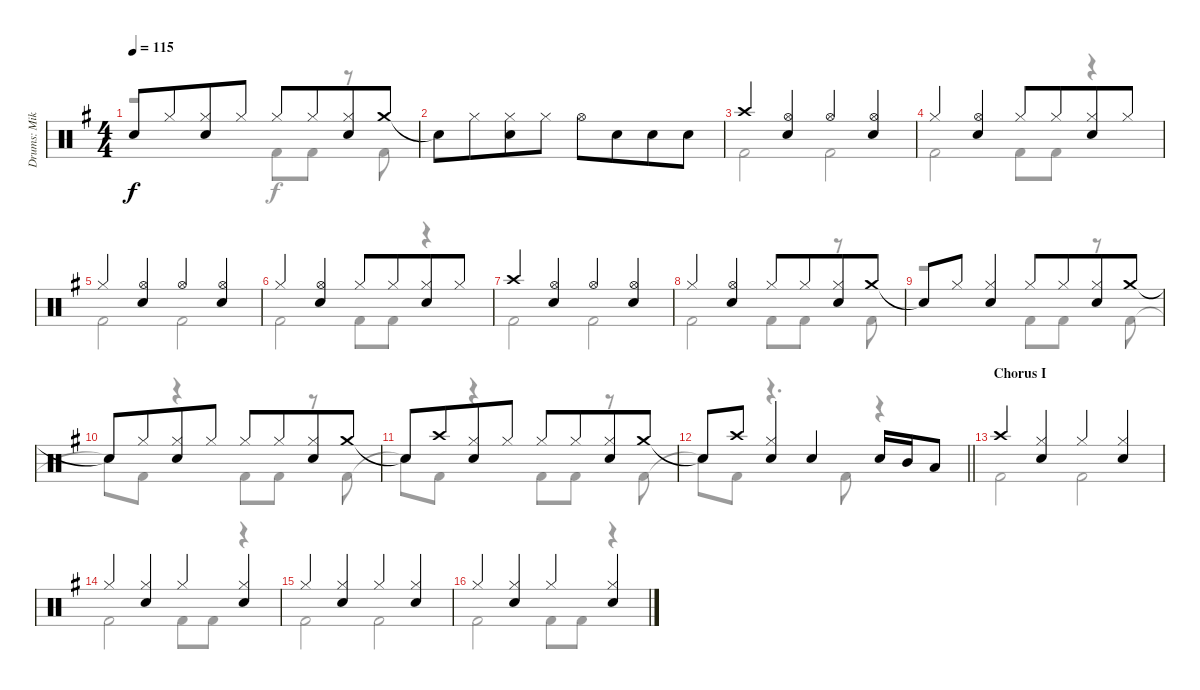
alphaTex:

\track ("Drums: Mikkey" "Drums: Mik") {instrument percussion}
\staff {score}
\articulation defaults
\voice
\ts (4 4)
\tempo 115
\clef neutral
\ks g "Snare (hit)"{t}.8{dy f} "Hi-Hat (closed)".8{beam merge}
("Hi-Hat (closed)" "Snare (hit) 2").8 "Hi-Hat (closed)".8 "Hi-Hat (closed)".8 "Hi-Hat (closed)".8{beam merge} ("Hi-Hat (closed)" "Snare (hit) 2").8 "Crash medium (hit)".8 |
"Snare (hit)"{t}.8 "Hi-Hat (closed)".8{beam merge} ("Hi-Hat (closed)" "Snare (hit) 2").8 "Hi-Hat (closed)".8 "Hi-Hat (open)".8 "Snare (hit) 2".8{beam merge} "Snare (hit) 2".8 "Snare (hit) 2".8 |
"Crash high (hit)".4 ("Hi-Hat (open)" "Snare (hit) 2").4 "Hi-Hat (open)".4 ("Hi-Hat (open)" "Snare (hit) 2").4 |
"Hi-Hat (closed)".4 ("Hi-Hat (open)" "Snare (hit) 2").4 "Hi-Hat (closed)".8 "Hi-Hat (closed)".8{beam merge} ("Hi-Hat (closed)" "Snare (hit) 2").8 "Hi-Hat (closed)".8 |
"Hi-Hat (closed)".4 ("Hi-Hat (open)" "Snare (hit) 2").4 "Hi-Hat (open)".4 ("Hi-Hat (open)" "Snare (hit) 2").4 |
"Hi-Hat (closed)".4 ("Hi-Hat (open)" "Snare (hit) 2").4 "Hi-Hat (closed)".8 "Hi-Hat (closed)".8{beam merge} ("Hi-Hat (closed)" "Snare (hit) 2").8 "Hi-Hat (closed)".8 |
"Crash high (hit)".4 ("Hi-Hat (open)" "Snare (hit) 2").4 "Hi-Hat (open)".4 ("Hi-Hat (open)" "Snare (hit) 2").4 |
"Hi-Hat (closed)".4 ("Hi-Hat (open)" "Snare (hit) 2").4 "Hi-Hat (closed)".8 "Hi-Hat (closed)".8{beam merge} ("Hi-Hat (closed)" "Snare (hit) 2").8 "Crash medium (hit)".8 |
"Snare (hit)"{t}.8 "Hi-Hat (closed)".8 ("Hi-Hat (closed)" "Snare (hit) 2").4 "Hi-Hat (closed)".8 "Hi-Hat (closed)".8{beam merge} ("Hi-Hat (closed)" "Snare (hit) 2").8 "Crash medium (hit)".8 |
"Snare (hit)"{t}.8 "Hi-Hat (closed)".8{beam merge} ("Hi-Hat (closed)" "Snare (hit) 2").8 "Hi-Hat (closed)".8 "Hi-Hat (closed)".8 "Hi-Hat (closed)".8{beam merge} ("Hi-Hat (closed)" "Snare (hit) 2").8 "Crash medium (hit)".8 |
"Snare (hit)"{t}.8 "Crash high (hit)".8{beam merge} ("Hi-Hat (closed)" "Snare (hit) 2").8 "Hi-Hat (closed)".8 "Hi-Hat (closed)".8 "Hi-Hat (closed)".8{beam merge} ("Hi-Hat (closed)" "Snare (hit) 2").8 "Crash medium (hit)".8 |
\barLineRight lightlight "Snare (hit)"{t}.8 "Crash high (hit)".8{beam merge}
("Hi-Hat (closed)" "Snare (hit) 2").4 "Snare (hit) 2".4 "Snare (hit) 2".16 "Mid Tom (hit)".16 "Low Tom (hit)".8 |
\section ("" "Chorus I")
"Crash high (hit)".4 ("Hi-Hat (closed)" "Snare (hit) 2").4 "Hi-Hat (closed)".4 ("Hi-Hat (closed)" "Snare (hit) 2").4 |
"Hi-Hat (closed)".4 ("Hi-Hat (closed)" "Snare (hit) 2").4 "Hi-Hat (closed)".4 ("Hi-Hat (closed)" "Snare (hit) 2").4 |
"Hi-Hat (closed)".4 ("Hi-Hat (closed)" "Snare (hit) 2").4 "Hi-Hat (closed)".4 ("Hi-Hat (closed)" "Snare (hit) 2").4 |
"Hi-Hat (closed)".4 ("Hi-Hat (closed)" "Snare (hit) 2").4 "Hi-Hat (closed)".4 ("Hi-Hat (closed)" "Snare (hit) 2").4
\voice
\clef neutral
\ottava regular
\simile none
\ks g
r.2{dy f} "Kick (hit) 2".8 "Kick (hit) 2".8 r.8 "Kick (hit) 2".8 |
|
"Kick (hit) 2".2 "Kick (hit) 2".2 |
"Kick (hit) 2".2 "Kick (hit) 2".8 "Kick (hit) 2".8 r.4 |
"Kick (hit) 2".2 "Kick (hit) 2".2 |
"Kick (hit) 2".2 "Kick (hit) 2".8 "Kick (hit) 2".8 r.4 |
"Kick (hit) 2".2 "Kick (hit) 2".2 |
"Kick (hit) 2".2 "Kick (hit) 2".8 "Kick (hit) 2".8 r.8 "Kick (hit) 2".8 |
r.2 "Kick (hit) 2".8 "Kick (hit) 2".8 r.8 "Kick (hit) 2".8 |
"Snare (hit)"{t}.8 "Kick (hit) 2".8 r.4 "Kick (hit) 2".8 "Kick (hit) 2".8 r.8 "Kick (hit) 2".8 |
"Snare (hit)"{t}.8 "Kick (hit) 2".8 r.4 "Kick (hit) 2".8 "Kick (hit) 2".8 r.8 "Kick (hit) 2".8 |
\barLineRight lightlight "Snare (hit)"{t}.8 "Kick (hit) 2".8
r.4{d} "Kick (hit) 2".8 r.4 |
"Kick (hit) 2".2 "Kick (hit) 2".2 |
"Kick (hit) 2".2 "Kick (hit) 2".8 "Kick (hit) 2".8 r.4 |
"Kick (hit) 2".2 "Kick (hit) 2".2 |
"Kick (hit) 2".2 "Kick (hit) 2".8 "Kick (hit) 2".8 r.4
